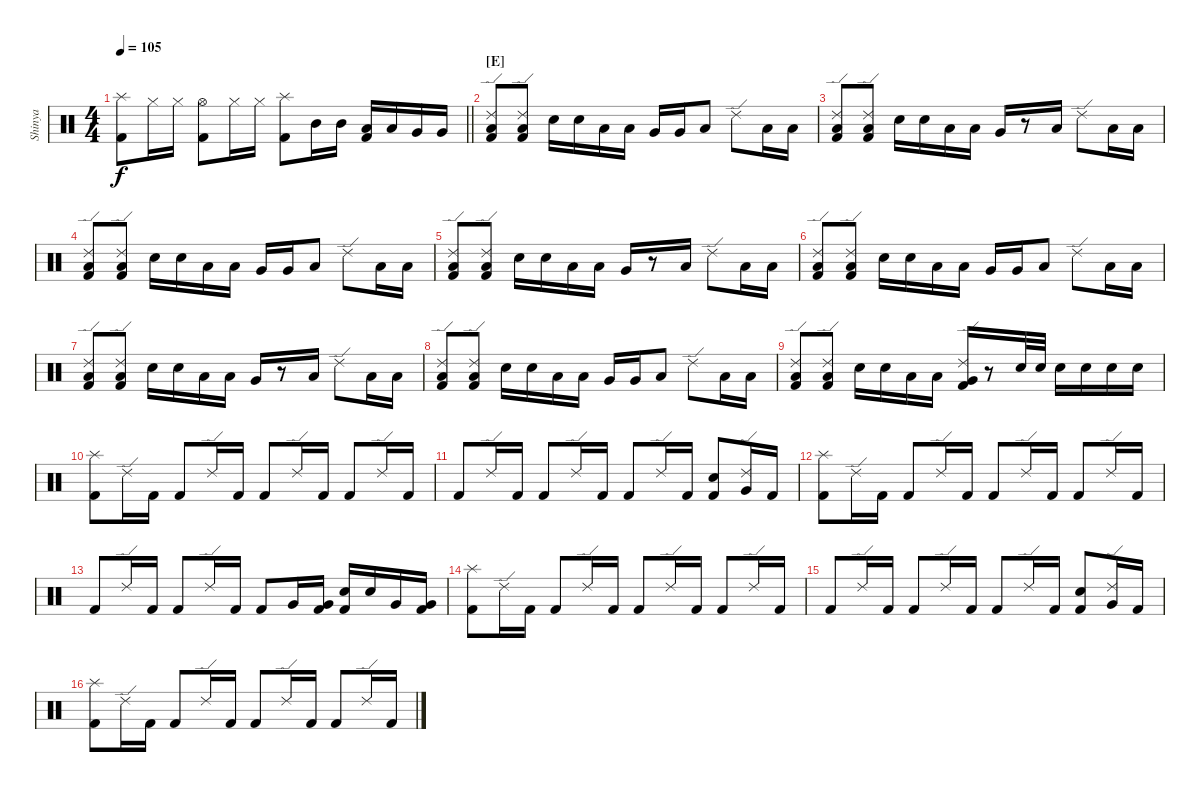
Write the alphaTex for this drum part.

\track ("Shinya" "Shinya") {instrument percussion}
\staff {score}
\articulation defaults
\ts (4 4)
\tempo 105
\clef neutral
\barLineRight lightlight
\ks c
("Splash (hit)" "Kick (hit) 2").8{dy f} "Hi-Hat (closed)".16 "Hi-Hat (closed)".16 ("Hi-Hat (open)" "Kick (hit) 2").8 "Hi-Hat (closed)".16 "Hi-Hat (closed)".16 ("Splash (hit)" "Kick (hit) 2").8 "Mid Tom (hit)".16 "Mid Tom (hit)".16 ("Low Tom (hit)" "Kick (hit) 2").16 "Low Tom (hit)".16 "Very Low Tom (hit)".16 "Very Low Tom (hit)".16 |
\section ("" "[E]")
("Ride (edge) 2" "Low Floor Tom (hit)" "Kick (hit) 2").8 ("Ride (edge) 2" "Low Floor Tom (hit)" "Kick (hit) 2").8 "Snare (hit) 2".16 "Snare (hit) 2".16 "Low Tom (hit)".16 "Low Tom (hit)".16 "Very Low Tom (hit)".16 "Very Low Tom (hit)".16 "Low Floor Tom (hit)".8 "Ride (edge) 2".8 "Low Tom (hit)".16 "Low Tom (hit)".16 |
("Ride (edge) 2" "Low Floor Tom (hit)" "Kick (hit) 2").8 ("Ride (edge) 2" "Low Floor Tom (hit)" "Kick (hit) 2").8 "Snare (hit) 2".16 "Snare (hit) 2".16 "Low Tom (hit)".16 "Low Tom (hit)".16 "Very Low Tom (hit)".16 r.8 "Low Floor Tom (hit)".16 "Ride (edge) 2".8 "Low Tom (hit)".16 "Low Tom (hit)".16 |
("Ride (edge) 2" "Low Floor Tom (hit)" "Kick (hit) 2").8 ("Ride (edge) 2" "Low Floor Tom (hit)" "Kick (hit) 2").8 "Snare (hit) 2".16 "Snare (hit) 2".16 "Low Tom (hit)".16 "Low Tom (hit)".16 "Very Low Tom (hit)".16 "Very Low Tom (hit)".16 "Low Floor Tom (hit)".8 "Ride (edge) 2".8 "Low Tom (hit)".16 "Low Tom (hit)".16 |
("Ride (edge) 2" "Low Floor Tom (hit)" "Kick (hit) 2").8 ("Ride (edge) 2" "Low Floor Tom (hit)" "Kick (hit) 2").8 "Snare (hit) 2".16 "Snare (hit) 2".16 "Low Tom (hit)".16 "Low Tom (hit)".16 "Very Low Tom (hit)".16 r.8 "Low Floor Tom (hit)".16 "Ride (edge) 2".8 "Low Tom (hit)".16 "Low Tom (hit)".16 |
("Ride (edge) 2" "Low Floor Tom (hit)" "Kick (hit) 2").8 ("Ride (edge) 2" "Low Floor Tom (hit)" "Kick (hit) 2").8 "Snare (hit) 2".16 "Snare (hit) 2".16 "Low Tom (hit)".16 "Low Tom (hit)".16 "Very Low Tom (hit)".16 "Very Low Tom (hit)".16 "Low Floor Tom (hit)".8 "Ride (edge) 2".8 "Low Tom (hit)".16 "Low Tom (hit)".16 |
("Ride (edge) 2" "Low Floor Tom (hit)" "Kick (hit) 2").8 ("Ride (edge) 2" "Low Floor Tom (hit)" "Kick (hit) 2").8 "Snare (hit) 2".16 "Snare (hit) 2".16 "Low Tom (hit)".16 "Low Tom (hit)".16 "Very Low Tom (hit)".16 r.8 "Low Floor Tom (hit)".16 "Ride (edge) 2".8 "Low Tom (hit)".16 "Low Tom (hit)".16 |
("Ride (edge) 2" "Low Floor Tom (hit)" "Kick (hit) 2").8 ("Ride (edge) 2" "Low Floor Tom (hit)" "Kick (hit) 2").8 "Snare (hit) 2".16 "Snare (hit) 2".16 "Low Tom (hit)".16 "Low Tom (hit)".16 "Very Low Tom (hit)".16 "Very Low Tom (hit)".16 "Low Floor Tom (hit)".8 "Ride (edge) 2".8 "Low Tom (hit)".16 "Low Tom (hit)".16 |
("Ride (edge) 2" "Low Floor Tom (hit)" "Kick (hit) 2").8 ("Ride (edge) 2" "Low Floor Tom (hit)" "Kick (hit) 2").8 "Snare (hit) 2".16 "Snare (hit) 2".16 "Low Tom (hit)".16 "Low Tom (hit)".16 ("Ride (edge) 2" "Very Low Tom (hit)" "Kick (hit) 2").16 r.8 "Snare (hit) 2".32 "Snare (hit) 2".32 "Snare (hit) 2".16 "Snare (hit) 2".16 "Snare (hit) 2".16 "Snare (hit) 2".16 |
("Splash (hit)" "Kick (hit) 2").8 "Ride (edge) 2".16 "Kick (hit) 2".16 "Kick (hit) 2".8 "Ride (edge) 2".16 "Kick (hit) 2".16 "Kick (hit) 2".8 "Ride (edge) 2".16 "Kick (hit) 2".16 "Kick (hit) 2".8 "Ride (edge) 2".16 "Kick (hit) 2".16 |
"Kick (hit) 2".8 "Ride (edge) 2".16 "Kick (hit) 2".16 "Kick (hit) 2".8 "Ride (edge) 2".16 "Kick (hit) 2".16 "Kick (hit) 2".8 "Ride (edge) 2".16 "Kick (hit) 2".16 ("Snare (hit) 2" "Kick (hit) 2").8 ("Ride (edge) 2" "Very Low Tom (hit)").16 "Kick (hit) 2".16 |
("Splash (hit)" "Kick (hit) 2").8 "Ride (edge) 2".16 "Kick (hit) 2".16 "Kick (hit) 2".8 "Ride (edge) 2".16 "Kick (hit) 2".16 "Kick (hit) 2".8 "Ride (edge) 2".16 "Kick (hit) 2".16 "Kick (hit) 2".8 "Ride (edge) 2".16 "Kick (hit) 2".16 |
"Kick (hit) 2".8 "Ride (edge) 2".16 "Kick (hit) 2".16 "Kick (hit) 2".8 "Ride (edge) 2".16 "Kick (hit) 2".16 "Kick (hit) 2".8 "Very Low Tom (hit)".16 ("Very Low Tom (hit)" "Kick (hit) 2").16 ("Snare (hit) 2" "Kick (hit) 2").16 "Snare (hit) 2".16 "Very Low Tom (hit)".16 ("Very Low Tom (hit)" "Kick (hit) 2").16 |
("Splash (hit)" "Kick (hit) 2").8 "Ride (edge) 2".16 "Kick (hit) 2".16 "Kick (hit) 2".8 "Ride (edge) 2".16 "Kick (hit) 2".16 "Kick (hit) 2".8 "Ride (edge) 2".16 "Kick (hit) 2".16 "Kick (hit) 2".8 "Ride (edge) 2".16 "Kick (hit) 2".16 |
"Kick (hit) 2".8 "Ride (edge) 2".16 "Kick (hit) 2".16 "Kick (hit) 2".8 "Ride (edge) 2".16 "Kick (hit) 2".16 "Kick (hit) 2".8 "Ride (edge) 2".16 "Kick (hit) 2".16 ("Snare (hit) 2" "Kick (hit) 2").8 ("Ride (edge) 2" "Very Low Tom (hit)").16 "Kick (hit) 2".16 |
("Splash (hit)" "Kick (hit) 2").8 "Ride (edge) 2".16 "Kick (hit) 2".16 "Kick (hit) 2".8 "Ride (edge) 2".16 "Kick (hit) 2".16 "Kick (hit) 2".8 "Ride (edge) 2".16 "Kick (hit) 2".16 "Kick (hit) 2".8 "Ride (edge) 2".16 "Kick (hit) 2".16
